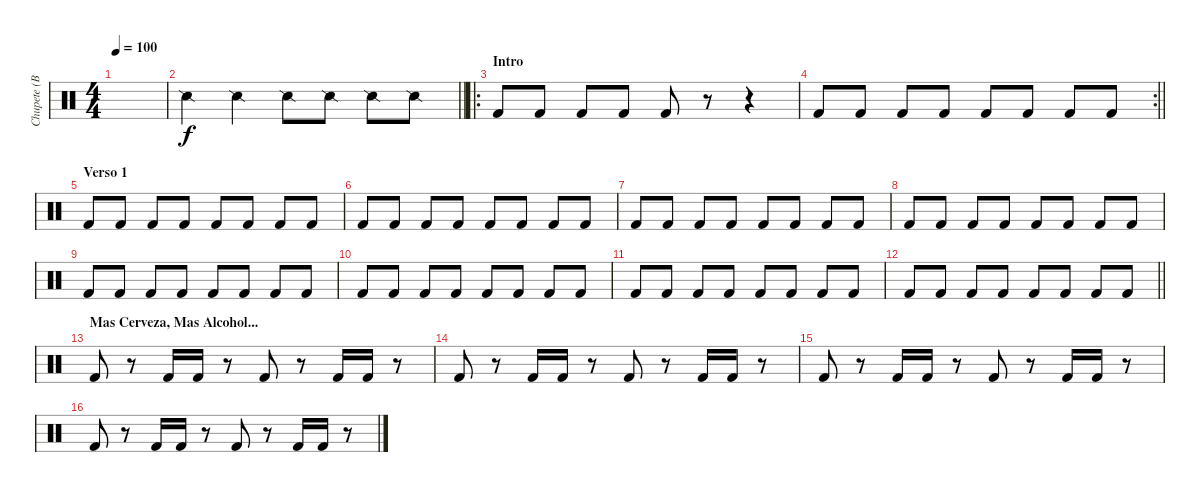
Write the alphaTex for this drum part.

\track ("Chupete (Bateria Bombo)" "Chupete (B") {instrument percussion}
\staff {score}
\articulation defaults
\ts (4 4)
\tempo 100
\clef neutral
\ks c
|
\barLineRight lightlight "Snare (side stick) 2".4 "Snare (side stick) 2".4 "Snare (side stick) 2".8 "Snare (side stick) 2".8 "Snare (side stick) 2".8 "Snare (side stick) 2".8
|
\ro
\section ("" "Intro")
"Kick (hit) 2".8 "Kick (hit) 2".8 "Kick (hit) 2".8 "Kick (hit) 2".8 "Kick (hit) 2".8 r.8 r.4 |
\rc 2
\barLineRight lightlight "Kick (hit) 2".8 "Kick (hit) 2".8 "Kick (hit) 2".8 "Kick (hit) 2".8 "Kick (hit) 2".8 "Kick (hit) 2".8 "Kick (hit) 2".8 "Kick (hit) 2".8
|
\section ("" "Verso 1")
"Kick (hit) 2".8 "Kick (hit) 2".8 "Kick (hit) 2".8 "Kick (hit) 2".8 "Kick (hit) 2".8 "Kick (hit) 2".8 "Kick (hit) 2".8 "Kick (hit) 2".8 |
"Kick (hit) 2".8 "Kick (hit) 2".8 "Kick (hit) 2".8 "Kick (hit) 2".8 "Kick (hit) 2".8 "Kick (hit) 2".8 "Kick (hit) 2".8 "Kick (hit) 2".8 |
"Kick (hit) 2".8 "Kick (hit) 2".8 "Kick (hit) 2".8 "Kick (hit) 2".8 "Kick (hit) 2".8 "Kick (hit) 2".8 "Kick (hit) 2".8 "Kick (hit) 2".8 |
"Kick (hit) 2".8 "Kick (hit) 2".8 "Kick (hit) 2".8 "Kick (hit) 2".8 "Kick (hit) 2".8 "Kick (hit) 2".8 "Kick (hit) 2".8 "Kick (hit) 2".8 |
"Kick (hit) 2".8 "Kick (hit) 2".8 "Kick (hit) 2".8 "Kick (hit) 2".8 "Kick (hit) 2".8 "Kick (hit) 2".8 "Kick (hit) 2".8 "Kick (hit) 2".8 |
"Kick (hit) 2".8 "Kick (hit) 2".8 "Kick (hit) 2".8 "Kick (hit) 2".8 "Kick (hit) 2".8 "Kick (hit) 2".8 "Kick (hit) 2".8 "Kick (hit) 2".8 |
"Kick (hit) 2".8 "Kick (hit) 2".8 "Kick (hit) 2".8 "Kick (hit) 2".8 "Kick (hit) 2".8 "Kick (hit) 2".8 "Kick (hit) 2".8 "Kick (hit) 2".8 |
\barLineRight lightlight "Kick (hit) 2".8 "Kick (hit) 2".8 "Kick (hit) 2".8 "Kick (hit) 2".8 "Kick (hit) 2".8 "Kick (hit) 2".8 "Kick (hit) 2".8 "Kick (hit) 2".8
|
\section ("" "Mas Cerveza, Mas Alcohol...")
"Kick (hit) 2".8 r.8 "Kick (hit) 2".16 "Kick (hit) 2".16 r.8 "Kick (hit) 2".8 r.8 "Kick (hit) 2".16 "Kick (hit) 2".16 r.8 |
"Kick (hit) 2".8 r.8 "Kick (hit) 2".16 "Kick (hit) 2".16 r.8 "Kick (hit) 2".8 r.8 "Kick (hit) 2".16 "Kick (hit) 2".16 r.8 |
"Kick (hit) 2".8 r.8 "Kick (hit) 2".16 "Kick (hit) 2".16 r.8 "Kick (hit) 2".8 r.8 "Kick (hit) 2".16 "Kick (hit) 2".16 r.8 |
"Kick (hit) 2".8 r.8 "Kick (hit) 2".16 "Kick (hit) 2".16 r.8 "Kick (hit) 2".8 r.8 "Kick (hit) 2".16 "Kick (hit) 2".16 r.8
